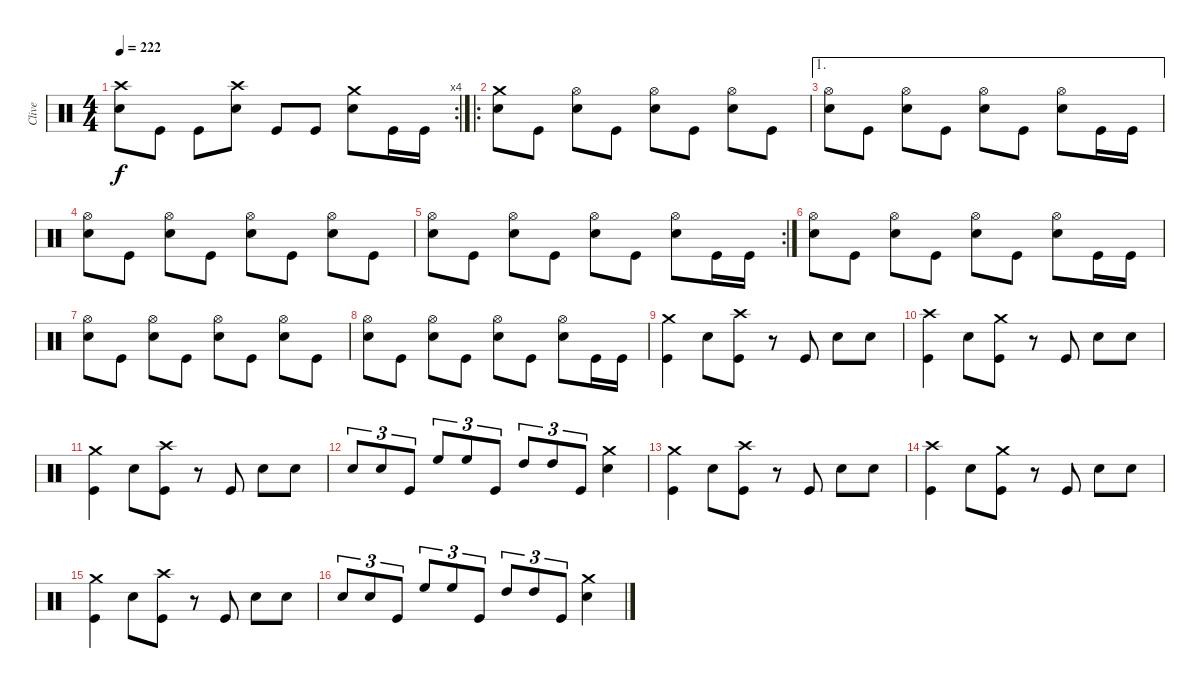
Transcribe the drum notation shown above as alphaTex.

\track ("Clive" "Clive") {instrument percussion}
\staff {score}
\articulation defaults
\rc 4
\ts (4 4)
\tempo 222
\clef neutral
\ks c
("Crash high (hit)" "Snare (hit) 2").8{dy f} "Kick (hit)".8 "Kick (hit)".8 ("Crash high (hit)" "Snare (hit) 2").8 "Kick (hit)".8 "Kick (hit)".8 ("Crash medium (hit)" "Snare (hit) 2").8 "Kick (hit)".16 "Kick (hit)".16 |
\ro
("Crash medium (hit)" "Snare (hit) 2").8 "Kick (hit)".8 ("Hi-Hat (open)" "Snare (hit) 2").8 "Kick (hit)".8 ("Hi-Hat (open)" "Snare (hit) 2").8 "Kick (hit)".8 ("Hi-Hat (open)" "Snare (hit) 2").8 "Kick (hit)".8 |
\ae 1
("Hi-Hat (open)" "Snare (hit) 2").8 "Kick (hit)".8 ("Hi-Hat (open)" "Snare (hit) 2").8 "Kick (hit)".8 ("Hi-Hat (open)" "Snare (hit) 2").8 "Kick (hit)".8 ("Hi-Hat (open)" "Snare (hit) 2").8 "Kick (hit)".16 "Kick (hit)".16 |
("Hi-Hat (open)" "Snare (hit) 2").8 "Kick (hit)".8 ("Hi-Hat (open)" "Snare (hit) 2").8 "Kick (hit)".8 ("Hi-Hat (open)" "Snare (hit) 2").8 "Kick (hit)".8 ("Hi-Hat (open)" "Snare (hit) 2").8 "Kick (hit)".8 |
\rc 2
("Hi-Hat (open)" "Snare (hit) 2").8 "Kick (hit)".8 ("Hi-Hat (open)" "Snare (hit) 2").8 "Kick (hit)".8 ("Hi-Hat (open)" "Snare (hit) 2").8 "Kick (hit)".8 ("Hi-Hat (open)" "Snare (hit) 2").8 "Kick (hit)".16 "Kick (hit)".16 |
("Hi-Hat (open)" "Snare (hit) 2").8 "Kick (hit)".8 ("Hi-Hat (open)" "Snare (hit) 2").8 "Kick (hit)".8 ("Hi-Hat (open)" "Snare (hit) 2").8 "Kick (hit)".8 ("Hi-Hat (open)" "Snare (hit) 2").8 "Kick (hit)".16 "Kick (hit)".16 |
("Hi-Hat (open)" "Snare (hit) 2").8 "Kick (hit)".8 ("Hi-Hat (open)" "Snare (hit) 2").8 "Kick (hit)".8 ("Hi-Hat (open)" "Snare (hit) 2").8 "Kick (hit)".8 ("Hi-Hat (open)" "Snare (hit) 2").8 "Kick (hit)".8 |
("Hi-Hat (open)" "Snare (hit) 2").8 "Kick (hit)".8 ("Hi-Hat (open)" "Snare (hit) 2").8 "Kick (hit)".8 ("Hi-Hat (open)" "Snare (hit) 2").8 "Kick (hit)".8 ("Hi-Hat (open)" "Snare (hit) 2").8 "Kick (hit)".16 "Kick (hit)".16 |
("Crash medium (hit)" "Kick (hit)").4 "Snare (hit) 2".8 ("Crash high (hit)" "Kick (hit)").8 r.8 "Kick (hit)".8 "Snare (hit) 2".8 "Snare (hit) 2".8 |
("Crash high (hit)" "Kick (hit)").4 "Snare (hit) 2".8 ("Crash medium (hit)" "Kick (hit)").8 r.8 "Kick (hit)".8 "Snare (hit) 2".8 "Snare (hit) 2".8 |
("Crash medium (hit)" "Kick (hit)").4 "Snare (hit) 2".8 ("Crash high (hit)" "Kick (hit)").8 r.8 "Kick (hit)".8 "Snare (hit) 2".8 "Snare (hit) 2".8 |
"Snare (hit) 2".8{tu (3 2)} "Snare (hit) 2".8{tu (3 2)} "Kick (hit)".8{tu (3 2)} "High Floor Tom (hit)".8{tu (3 2)} "High Floor Tom (hit)".8{tu (3 2)} "Kick (hit)".8{tu (3 2)} "High Tom (hit)".8{tu (3 2)} "High Tom (hit)".8{tu (3 2)} "Kick (hit)".8{tu (3 2)} ("Crash medium (hit)" "Snare (hit) 2").4 |
("Crash medium (hit)" "Kick (hit)").4 "Snare (hit) 2".8 ("Crash high (hit)" "Kick (hit)").8 r.8 "Kick (hit)".8 "Snare (hit) 2".8 "Snare (hit) 2".8 |
("Crash high (hit)" "Kick (hit)").4 "Snare (hit) 2".8 ("Crash medium (hit)" "Kick (hit)").8 r.8 "Kick (hit)".8 "Snare (hit) 2".8 "Snare (hit) 2".8 |
("Crash medium (hit)" "Kick (hit)").4 "Snare (hit) 2".8 ("Crash high (hit)" "Kick (hit)").8 r.8 "Kick (hit)".8 "Snare (hit) 2".8 "Snare (hit) 2".8 |
"Snare (hit) 2".8{tu (3 2)} "Snare (hit) 2".8{tu (3 2)} "Kick (hit)".8{tu (3 2)} "High Floor Tom (hit)".8{tu (3 2)} "High Floor Tom (hit)".8{tu (3 2)} "Kick (hit)".8{tu (3 2)} "High Tom (hit)".8{tu (3 2)} "High Tom (hit)".8{tu (3 2)} "Kick (hit)".8{tu (3 2)} ("Crash medium (hit)" "Snare (hit) 2").4
